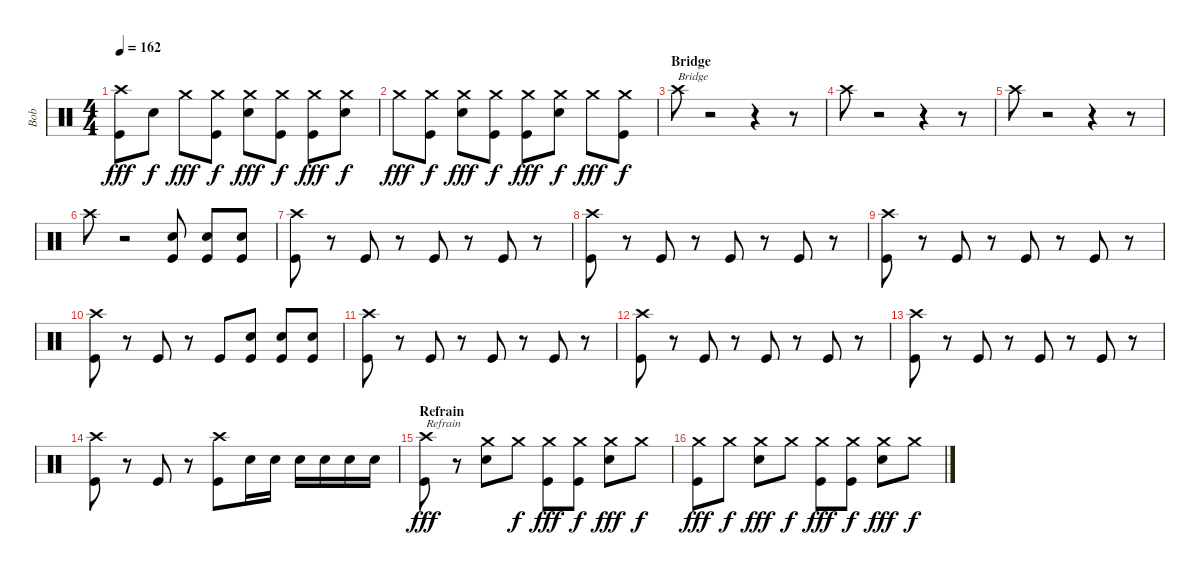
\track ("Bob" "Bob") {instrument percussion}
\staff {score}
\articulation defaults
\ts (4 4)
\tempo 162
\clef neutral
\ks c
("Crash high (hit)" "Kick (hit)").8{dy fff} "Electric Snare (hit)".8{dy f} "Crash medium (hit)".8{dy fff} ("Crash medium (hit)" "Kick (hit)").8{dy f} ("Crash medium (hit)" "Electric Snare (hit)").8{dy fff} ("Crash medium (hit)" "Kick (hit)").8{dy f} ("Crash medium (hit)" "Kick (hit)").8{dy fff} ("Crash medium (hit)" "Electric Snare (hit)").8{dy f} |
"Crash medium (hit)".8{dy fff} ("Crash medium (hit)" "Kick (hit)").8{dy f} ("Crash medium (hit)" "Electric Snare (hit)").8{dy fff} ("Crash medium (hit)" "Kick (hit)").8{dy f} ("Crash medium (hit)" "Kick (hit)").8{dy fff} ("Crash medium (hit)" "Electric Snare (hit)").8{dy f} "Crash medium (hit)".8{dy fff} ("Crash medium (hit)" "Kick (hit)").8{dy f} |
\section ("" "Bridge")
"Crash high (hit)".8{txt "Bridge"} r.2 r.4 r.8 |
"Crash high (hit)".8 r.2 r.4 r.8 |
"Crash high (hit)".8 r.2 r.4 r.8 |
"Crash high (hit)".8 r.2 ("Electric Snare (hit)" "Kick (hit)").8 ("Electric Snare (hit)" "Kick (hit)").8 ("Electric Snare (hit)" "Kick (hit)").8 |
("Crash high (hit)" "Kick (hit)").8 r.8 "Kick (hit)".8 r.8 "Kick (hit)".8 r.8 "Kick (hit)".8 r.8 |
("Crash high (hit)" "Kick (hit)").8 r.8 "Kick (hit)".8 r.8 "Kick (hit)".8 r.8 "Kick (hit)".8 r.8 |
("Crash high (hit)" "Kick (hit)").8 r.8 "Kick (hit)".8 r.8 "Kick (hit)".8 r.8 "Kick (hit)".8 r.8 |
("Crash high (hit)" "Kick (hit)").8 r.8 "Kick (hit)".8 r.8 "Kick (hit)".8 ("Electric Snare (hit)" "Kick (hit)").8 ("Electric Snare (hit)" "Kick (hit)").8 ("Electric Snare (hit)" "Kick (hit)").8 |
("Crash high (hit)" "Kick (hit)").8 r.8 "Kick (hit)".8 r.8 "Kick (hit)".8 r.8 "Kick (hit)".8 r.8 |
("Crash high (hit)" "Kick (hit)").8 r.8 "Kick (hit)".8 r.8 "Kick (hit)".8 r.8 "Kick (hit)".8 r.8 |
("Crash high (hit)" "Kick (hit)").8 r.8 "Kick (hit)".8 r.8 "Kick (hit)".8 r.8 "Kick (hit)".8 r.8 |
("Crash high (hit)" "Kick (hit)").8 r.8 "Kick (hit)".8 r.8 ("Crash high (hit)" "Kick (hit)").8 "Electric Snare (hit)".16 "Electric Snare (hit)".16 "Electric Snare (hit)".16 "Electric Snare (hit)".16 "Electric Snare (hit)".16 "Electric Snare (hit)".16 |
\section ("" "Refrain")
("Crash high (hit)" "Kick (hit)").8{txt "Refrain" dy fff} r.8 ("Crash medium (hit)" "Electric Snare (hit)").8 "Crash medium (hit)".8{dy f} ("Crash medium (hit)" "Kick (hit)").8{dy fff} ("Crash medium (hit)" "Kick (hit)").8{dy f} ("Crash medium (hit)" "Electric Snare (hit)").8{dy fff} "Crash medium (hit)".8{dy f} |
("Crash medium (hit)" "Kick (hit)").8{dy fff} "Crash medium (hit)".8{dy f} ("Crash medium (hit)" "Electric Snare (hit)").8{dy fff} "Crash medium (hit)".8{dy f} ("Crash medium (hit)" "Kick (hit)").8{dy fff} ("Crash medium (hit)" "Kick (hit)").8{dy f} ("Crash medium (hit)" "Electric Snare (hit)").8{dy fff} "Crash medium (hit)".8{dy f}
